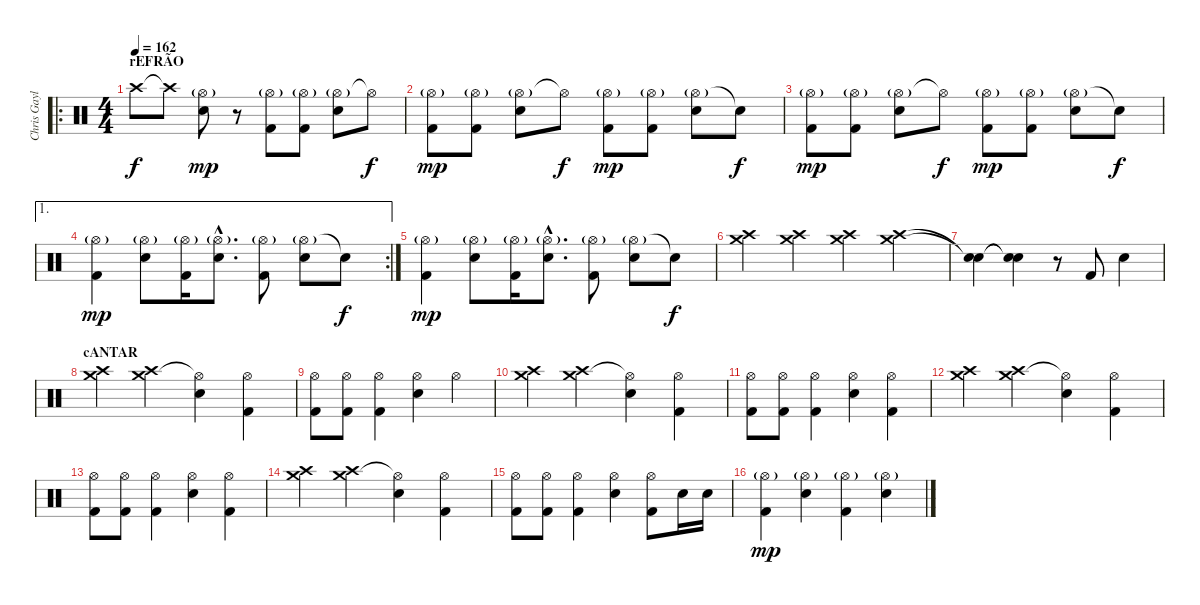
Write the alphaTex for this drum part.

\track ("Chris Gaylor" "Chris Gayl") {instrument percussion}
\staff {score}
\articulation defaults
\ro
\ts (4 4)
\section ("" "rEFRÃO")
\tempo 162
\clef neutral
\ks c "Crash high (hit)".8{dy f} "Crash high (hit)"{t}.8
("Hi-Hat (open)"{g} "Snare (hit) 2").8{dy mp} r.8 ("Hi-Hat (open)"{g} "Kick (hit) 2").8 ("Hi-Hat (open)"{g} "Kick (hit) 2").8 ("Hi-Hat (open)"{g} "Snare (hit) 2").8 "Hi-Hat (open)"{t}.8{dy f} |
("Hi-Hat (open)"{g} "Kick (hit) 2").8{dy mp} ("Hi-Hat (open)"{g} "Kick (hit) 2").8 ("Hi-Hat (open)"{g} "Snare (hit) 2").8 "Hi-Hat (open)"{t}.8{dy f} ("Hi-Hat (open)"{g} "Kick (hit) 2").8{dy mp} ("Hi-Hat (open)"{g} "Kick (hit) 2").8 ("Hi-Hat (open)"{g} "Snare (hit) 2").8 "Snare (hit)"{t}.8{dy f} |
("Hi-Hat (open)"{g} "Kick (hit) 2").8{dy mp} ("Hi-Hat (open)"{g} "Kick (hit) 2").8 ("Hi-Hat (open)"{g} "Snare (hit) 2").8 "Hi-Hat (open)"{t}.8{dy f} ("Hi-Hat (open)"{g} "Kick (hit) 2").8{dy mp} ("Hi-Hat (open)"{g} "Kick (hit) 2").8 ("Hi-Hat (open)"{g} "Snare (hit) 2").8 "Snare (hit)"{t}.8{dy f} |
\ae 1
\rc 2
("Hi-Hat (open)"{g} "Kick (hit) 2").4{dy mp} ("Hi-Hat (open)"{g} "Snare (hit) 2").8 ("Hi-Hat (open)"{g} "Kick (hit) 2").16 ("Hi-Hat (open)"{g hac} "Snare (hit) 2"{hac}).8{d} ("Hi-Hat (open)"{g} "Kick (hit) 2").8 ("Hi-Hat (open)"{g} "Snare (hit) 2").8 "Snare (hit)"{t}.8{dy f} |
("Hi-Hat (open)"{g} "Kick (hit) 2").4{dy mp} ("Hi-Hat (open)"{g} "Snare (hit) 2").8 ("Hi-Hat (open)"{g} "Kick (hit) 2").16 ("Hi-Hat (open)"{g hac} "Snare (hit) 2"{hac}).8{d} ("Hi-Hat (open)"{g} "Kick (hit) 2").8 ("Hi-Hat (open)"{g} "Snare (hit) 2").8 "Snare (hit)"{t}.8{dy f} |
("Crash medium (hit)" "Crash high (hit)").4 ("Crash medium (hit)" "Crash high (hit)").4 ("Crash medium (hit)" "Crash high (hit)").4 ("Crash medium (hit)" "Crash high (hit)").4 |
("Snare (hit)"{t} "Snare (hit)"{t}).4 ("Snare (hit)"{t} "Snare (hit)"{t}).4 r.8 "Kick (hit) 2".8 "Snare (hit) 2".4 |
\section ("" "cANTAR")
("Crash medium (hit)" "Crash high (hit)").4 ("Crash medium (hit)" "Crash high (hit)").4 ("Hi-Hat (open)"{t} "Snare (hit) 2").4 ("Hi-Hat (open)" "Kick (hit) 2").4 |
("Hi-Hat (open)" "Kick (hit) 2").8 ("Hi-Hat (open)" "Kick (hit) 2").8 ("Hi-Hat (open)" "Kick (hit) 2").4 ("Hi-Hat (open)" "Snare (hit) 2").4 "Hi-Hat (open)".4 |
("Crash medium (hit)" "Crash high (hit)").4 ("Crash medium (hit)" "Crash high (hit)").4 ("Hi-Hat (open)"{t} "Snare (hit) 2").4 ("Hi-Hat (open)" "Kick (hit) 2").4 |
("Hi-Hat (open)" "Kick (hit) 2").8 ("Hi-Hat (open)" "Kick (hit) 2").8 ("Hi-Hat (open)" "Kick (hit) 2").4 ("Hi-Hat (open)" "Snare (hit) 2").4 ("Hi-Hat (open)" "Kick (hit) 2").4 |
("Crash medium (hit)" "Crash high (hit)").4 ("Crash medium (hit)" "Crash high (hit)").4 ("Hi-Hat (open)"{t} "Snare (hit) 2").4 ("Hi-Hat (open)" "Kick (hit) 2").4 |
("Hi-Hat (open)" "Kick (hit) 2").8 ("Hi-Hat (open)" "Kick (hit) 2").8 ("Hi-Hat (open)" "Kick (hit) 2").4 ("Hi-Hat (open)" "Snare (hit) 2").4 ("Hi-Hat (open)" "Kick (hit) 2").4 |
("Crash medium (hit)" "Crash high (hit)").4 ("Crash medium (hit)" "Crash high (hit)").4 ("Hi-Hat (open)"{t} "Snare (hit) 2").4 ("Hi-Hat (open)" "Kick (hit) 2").4 |
("Hi-Hat (open)" "Kick (hit) 2").8 ("Hi-Hat (open)" "Kick (hit) 2").8 ("Hi-Hat (open)" "Kick (hit) 2").4 ("Hi-Hat (open)" "Snare (hit) 2").4 ("Hi-Hat (open)" "Kick (hit) 2").8 "Snare (hit) 2".16 "Snare (hit) 2".16 |
("Hi-Hat (open)"{g} "Kick (hit) 2").4{dy mp} ("Hi-Hat (open)"{g} "Snare (hit) 2").4 ("Hi-Hat (open)"{g} "Kick (hit) 2").4 ("Hi-Hat (open)"{g} "Snare (hit) 2").4
